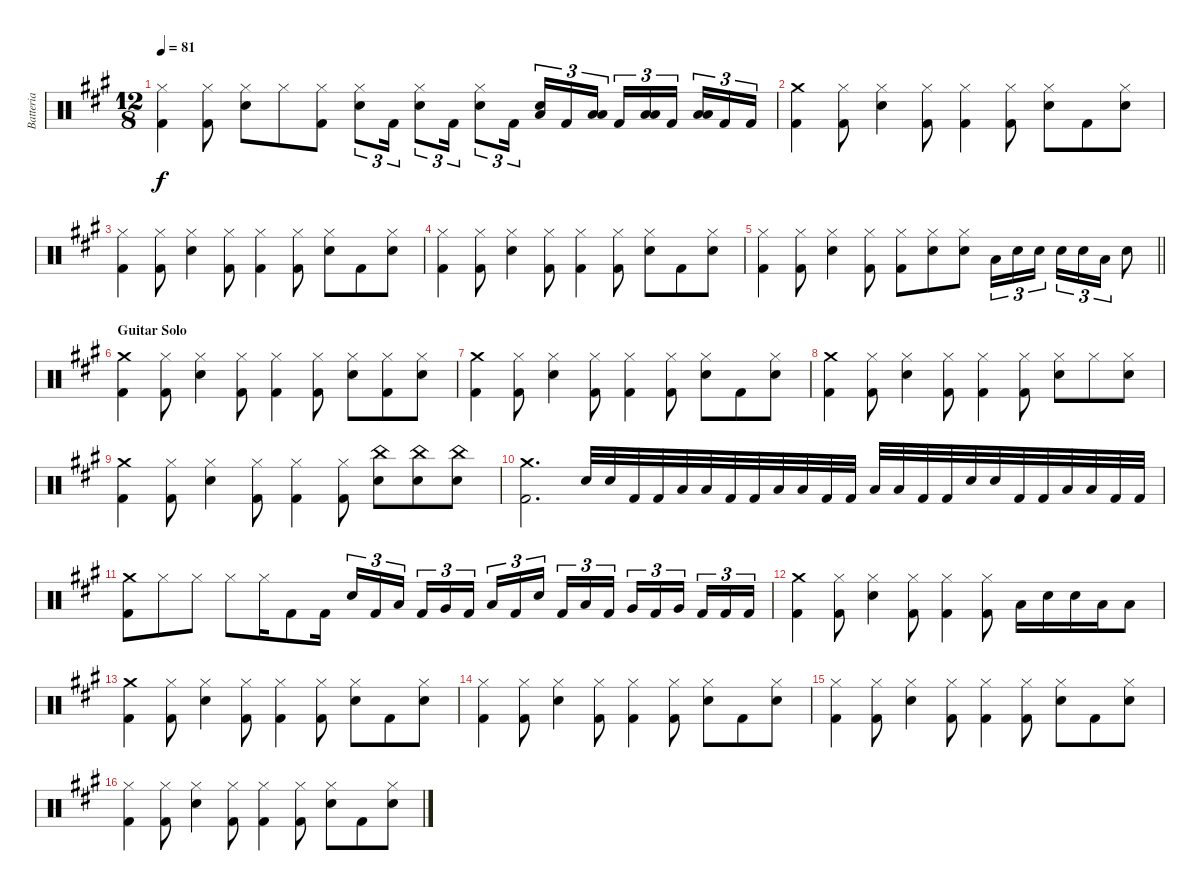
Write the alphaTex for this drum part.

\track ("Batteria" "Batteria") {instrument percussion}
\staff {score}
\articulation defaults
\ts (12 8)
\tempo 81
\clef neutral
\ks a
("Hi-Hat (closed)" "Kick (hit) 2").4{dy f} ("Hi-Hat (closed)" "Kick (hit) 2").8 ("Electric Snare (hit)" "Hi-Hat (closed)").8 "Hi-Hat (closed)".8 ("Hi-Hat (closed)" "Kick (hit) 2").8 ("Electric Snare (hit)" "Hi-Hat (closed)").8{tu (3 2)} "Kick (hit) 2".16{tu (3 2)} ("Electric Snare (hit)" "Hi-Hat (closed)").8{tu (3 2)} "Kick (hit) 2".16{tu (3 2)} ("Electric Snare (hit)" "Hi-Hat (closed)").8{tu (3 2)} "Kick (hit) 2".16{tu (3 2)} ("Electric Snare (hit)" "Low Tom (hit)").16{tu (3 2)} "Kick (hit) 2".16{tu (3 2)} ("Low Floor Tom (hit)" "Low Tom (hit)").16{tu (3 2) beam splitsecondary} "Kick (hit) 2".16{tu (3 2)} ("Low Tom (hit)" "Low Floor Tom (hit)").16{tu (3 2)} "Kick (hit) 2".16{tu (3 2) beam splitsecondary} ("Low Tom (hit)" "Low Floor Tom (hit)").16{tu (3 2)} "Kick (hit) 2".16{tu (3 2)} "Kick (hit) 2".16{tu (3 2)} |
("Crash medium (hit)" "Kick (hit) 2").4 ("Hi-Hat (closed)" "Kick (hit) 2").8 ("Electric Snare (hit)" "Hi-Hat (closed)").4 ("Hi-Hat (closed)" "Kick (hit) 2").8 ("Hi-Hat (closed)" "Kick (hit) 2").4 ("Hi-Hat (closed)" "Kick (hit) 2").8 ("Electric Snare (hit)" "Hi-Hat (closed)").8 "Kick (hit) 2".8 ("Electric Snare (hit)" "Hi-Hat (closed)").8 |
("Hi-Hat (closed)" "Kick (hit) 2").4 ("Hi-Hat (closed)" "Kick (hit) 2").8 ("Electric Snare (hit)" "Hi-Hat (closed)").4 ("Hi-Hat (closed)" "Kick (hit) 2").8 ("Hi-Hat (closed)" "Kick (hit) 2").4 ("Hi-Hat (closed)" "Kick (hit) 2").8 ("Electric Snare (hit)" "Hi-Hat (closed)").8 "Kick (hit) 2".8 ("Electric Snare (hit)" "Hi-Hat (closed)").8 |
("Hi-Hat (closed)" "Kick (hit) 2").4 ("Hi-Hat (closed)" "Kick (hit) 2").8 ("Electric Snare (hit)" "Hi-Hat (closed)").4 ("Hi-Hat (closed)" "Kick (hit) 2").8 ("Hi-Hat (closed)" "Kick (hit) 2").4 ("Hi-Hat (closed)" "Kick (hit) 2").8 ("Electric Snare (hit)" "Hi-Hat (closed)").8 "Kick (hit) 2".8 ("Electric Snare (hit)" "Hi-Hat (closed)").8 |
\barLineRight lightlight
("Hi-Hat (closed)" "Kick (hit) 2").4 ("Hi-Hat (closed)" "Kick (hit) 2").8 ("Electric Snare (hit)" "Hi-Hat (closed)").4 ("Hi-Hat (closed)" "Kick (hit) 2").8 ("Hi-Hat (closed)" "Kick (hit) 2").8 ("Electric Snare (hit)" "Hi-Hat (closed)").8 ("Electric Snare (hit)" "Hi-Hat (closed)").8 "Low Tom (hit)".16{tu (3 2)} "Electric Snare (hit)".16{tu (3 2)} "Electric Snare (hit)".16{tu (3 2) beam splitsecondary} "Electric Snare (hit)".16{tu (3 2)} "Electric Snare (hit)".16{tu (3 2)} "Low Tom (hit)".16{tu (3 2)} "Electric Snare (hit)".8 |
\section ("" "Guitar Solo")
("Crash medium (hit)" "Kick (hit) 2").4 ("Hi-Hat (closed)" "Kick (hit) 2").8 ("Electric Snare (hit)" "Hi-Hat (closed)").4 ("Hi-Hat (closed)" "Kick (hit) 2").8 ("Hi-Hat (closed)" "Kick (hit) 2").4 ("Hi-Hat (closed)" "Kick (hit) 2").8 ("Electric Snare (hit)" "Hi-Hat (closed)").8 ("Hi-Hat (closed)" "Kick (hit) 2").8 ("Electric Snare (hit)" "Hi-Hat (closed)").8 |
("Crash medium (hit)" "Kick (hit) 2").4 ("Hi-Hat (closed)" "Kick (hit) 2").8 ("Electric Snare (hit)" "Hi-Hat (closed)").4 ("Hi-Hat (closed)" "Kick (hit) 2").8 ("Hi-Hat (closed)" "Kick (hit) 2").4 ("Hi-Hat (closed)" "Kick (hit) 2").8 ("Electric Snare (hit)" "Hi-Hat (closed)").8 "Kick (hit) 2".8 ("Electric Snare (hit)" "Hi-Hat (closed)").8 |
("Crash medium (hit)" "Kick (hit) 2").4 ("Hi-Hat (closed)" "Kick (hit) 2").8 ("Electric Snare (hit)" "Hi-Hat (closed)").4 ("Hi-Hat (closed)" "Kick (hit) 2").8 ("Hi-Hat (closed)" "Kick (hit) 2").4 ("Hi-Hat (closed)" "Kick (hit) 2").8 ("Electric Snare (hit)" "Hi-Hat (closed)").8 "Hi-Hat (closed)".8 ("Electric Snare (hit)" "Hi-Hat (closed)").8 |
("Crash medium (hit)" "Kick (hit) 2").4 ("Hi-Hat (closed)" "Kick (hit) 2").8 ("Electric Snare (hit)" "Hi-Hat (closed)").4 ("Hi-Hat (closed)" "Kick (hit) 2").8 ("Hi-Hat (closed)" "Kick (hit) 2").4 ("Hi-Hat (closed)" "Kick (hit) 2").8 ("Electric Snare (hit)" "China (hit)").8 ("Electric Snare (hit)" "China (hit)").8 ("Electric Snare (hit)" "China (hit)").8 |
("Crash medium (hit)" "Kick (hit) 2").2{d} "Electric Snare (hit)".32 "Electric Snare (hit)".32 "Kick (hit) 2".32 "Kick (hit) 2".32 "Low Tom (hit)".32 "Low Tom (hit)".32 "Kick (hit) 2".32 "Kick (hit) 2".32 "Low Floor Tom (hit)".32 "Low Floor Tom (hit)".32 "Kick (hit) 2".32 "Kick (hit) 2".32 "Low Tom (hit)".32 "Low Tom (hit)".32 "Kick (hit) 2".32 "Kick (hit) 2".32 "Electric Snare (hit)".32 "Electric Snare (hit)".32 "Kick (hit) 2".32 "Kick (hit) 2".32 "Low Tom (hit)".32 "Low Tom (hit)".32 "Kick (hit) 2".32 "Kick (hit) 2".32 |
("Crash medium (hit)" "Kick (hit) 2").8 "Hi-Hat (closed)".8 "Hi-Hat (closed)".8 "Hi-Hat (closed)".8 "Hi-Hat (closed)".16 "Kick (hit) 2".8 "Kick (hit) 2".16 "Electric Snare (hit)".16{tu (3 2)} "Kick (hit) 2".16{tu (3 2)} "Low Tom (hit)".16{tu (3 2) beam splitsecondary} "Kick (hit) 2".16{tu (3 2)} "Very Low Tom (hit)".16{tu (3 2)} "Kick (hit) 2".16{tu (3 2) beam splitsecondary} "Low Floor Tom (hit)".16{tu (3 2)} "Kick (hit) 2".16{tu (3 2)} "Electric Snare (hit)".16{tu (3 2)} "Kick (hit) 2".16{tu (3 2)} "Low Tom (hit)".16{tu (3 2)} "Kick (hit) 2".16{tu (3 2) beam splitsecondary} "Very Low Tom (hit)".16{tu (3 2)} "Kick (hit) 2".16{tu (3 2)} "Very Low Tom (hit)".16{tu (3 2) beam splitsecondary} "Kick (hit) 2".16{tu (3 2)} "Kick (hit) 2".16{tu (3 2)} "Kick (hit) 2".16{tu (3 2)} |
("Crash medium (hit)" "Kick (hit) 2").4 ("Hi-Hat (closed)" "Kick (hit) 2").8 ("Electric Snare (hit)" "Hi-Hat (closed)").4 ("Hi-Hat (closed)" "Kick (hit) 2").8 ("Hi-Hat (closed)" "Kick (hit) 2").4 ("Hi-Hat (closed)" "Kick (hit) 2").8 "Low Tom (hit)".16 "Electric Snare (hit)".16 "Electric Snare (hit)".16 "Low Tom (hit)".16 "Low Floor Tom (hit)".8 |
("Crash medium (hit)" "Kick (hit) 2").4 ("Hi-Hat (closed)" "Kick (hit) 2").8 ("Electric Snare (hit)" "Hi-Hat (closed)").4 ("Hi-Hat (closed)" "Kick (hit) 2").8 ("Hi-Hat (closed)" "Kick (hit) 2").4 ("Hi-Hat (closed)" "Kick (hit) 2").8 ("Electric Snare (hit)" "Hi-Hat (closed)").8 "Kick (hit) 2".8 ("Electric Snare (hit)" "Hi-Hat (closed)").8 |
("Hi-Hat (closed)" "Kick (hit) 2").4 ("Hi-Hat (closed)" "Kick (hit) 2").8 ("Electric Snare (hit)" "Hi-Hat (closed)").4 ("Hi-Hat (closed)" "Kick (hit) 2").8 ("Hi-Hat (closed)" "Kick (hit) 2").4 ("Hi-Hat (closed)" "Kick (hit) 2").8 ("Electric Snare (hit)" "Hi-Hat (closed)").8 "Kick (hit) 2".8 ("Electric Snare (hit)" "Hi-Hat (closed)").8 |
("Hi-Hat (closed)" "Kick (hit) 2").4 ("Hi-Hat (closed)" "Kick (hit) 2").8 ("Electric Snare (hit)" "Hi-Hat (closed)").4 ("Hi-Hat (closed)" "Kick (hit) 2").8 ("Hi-Hat (closed)" "Kick (hit) 2").4 ("Hi-Hat (closed)" "Kick (hit) 2").8 ("Electric Snare (hit)" "Hi-Hat (closed)").8 "Kick (hit) 2".8 ("Electric Snare (hit)" "Hi-Hat (closed)").8 |
("Hi-Hat (closed)" "Kick (hit) 2").4 ("Hi-Hat (closed)" "Kick (hit) 2").8 ("Electric Snare (hit)" "Hi-Hat (closed)").4 ("Hi-Hat (closed)" "Kick (hit) 2").8 ("Hi-Hat (closed)" "Kick (hit) 2").4 ("Hi-Hat (closed)" "Kick (hit) 2").8 ("Electric Snare (hit)" "Hi-Hat (closed)").8 "Kick (hit) 2".8 ("Electric Snare (hit)" "Hi-Hat (closed)").8
